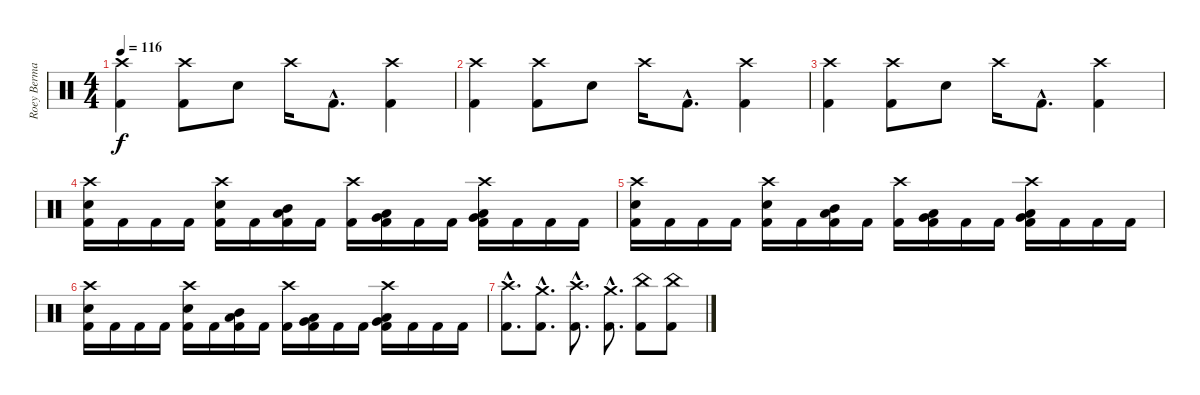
\track ("Roey Berman" "Roey Berma") {instrument percussion}
\staff {score}
\articulation defaults
\ts (4 4)
\tempo 116
\clef neutral
\ks c
("Crash high (hit)" "Kick (hit) 2").4{dy f} ("Crash high (hit)" "Kick (hit) 2").8 "Electric Snare (hit)".8 "Crash high (hit)".16 "Kick (hit) 2"{hac}.8{d} ("Crash high (hit)" "Kick (hit) 2").4 |
("Crash high (hit)" "Kick (hit) 2").4 ("Crash high (hit)" "Kick (hit) 2").8 "Electric Snare (hit)".8 "Crash high (hit)".16 "Kick (hit) 2"{hac}.8{d} ("Crash high (hit)" "Kick (hit) 2").4 |
("Crash high (hit)" "Kick (hit) 2").4 ("Crash high (hit)" "Kick (hit) 2").8 "Electric Snare (hit)".8 "Crash high (hit)".16 "Kick (hit) 2"{hac}.8{d} ("Crash high (hit)" "Kick (hit) 2").4 |
("Crash high (hit)" "Electric Snare (hit)" "Kick (hit) 2").16 "Kick (hit) 2".16 "Kick (hit) 2".16 "Kick (hit) 2".16 ("Crash high (hit)" "Electric Snare (hit)" "Kick (hit) 2").16 "Kick (hit) 2".16 ("Mid Tom (hit)" "Low Tom (hit)" "Kick (hit) 2").16 "Kick (hit) 2".16 ("Crash high (hit)" "Kick (hit) 2").16 ("Low Tom (hit)" "Very Low Tom (hit)" "Kick (hit) 2").16 "Kick (hit) 2".16 "Kick (hit) 2".16 ("Crash high (hit)" "Very Low Tom (hit)" "Low Floor Tom (hit)" "Kick (hit) 2").16 "Kick (hit) 2".16 "Kick (hit) 2".16 "Kick (hit) 2".16 |
("Crash high (hit)" "Electric Snare (hit)" "Kick (hit) 2").16 "Kick (hit) 2".16 "Kick (hit) 2".16 "Kick (hit) 2".16 ("Crash high (hit)" "Electric Snare (hit)" "Kick (hit) 2").16 "Kick (hit) 2".16 ("Mid Tom (hit)" "Low Tom (hit)" "Kick (hit) 2").16 "Kick (hit) 2".16 ("Crash high (hit)" "Kick (hit) 2").16 ("Low Tom (hit)" "Very Low Tom (hit)" "Kick (hit) 2").16 "Kick (hit) 2".16 "Kick (hit) 2".16 ("Crash high (hit)" "Very Low Tom (hit)" "Low Floor Tom (hit)" "Kick (hit) 2").16 "Kick (hit) 2".16 "Kick (hit) 2".16 "Kick (hit) 2".16 |
("Crash high (hit)" "Electric Snare (hit)" "Kick (hit) 2").16 "Kick (hit) 2".16 "Kick (hit) 2".16 "Kick (hit) 2".16 ("Crash high (hit)" "Electric Snare (hit)" "Kick (hit) 2").16 "Kick (hit) 2".16 ("Mid Tom (hit)" "Low Tom (hit)" "Kick (hit) 2").16 "Kick (hit) 2".16 ("Crash high (hit)" "Kick (hit) 2").16 ("Low Tom (hit)" "Very Low Tom (hit)" "Kick (hit) 2").16 "Kick (hit) 2".16 "Kick (hit) 2".16 ("Crash high (hit)" "Very Low Tom (hit)" "Low Floor Tom (hit)" "Kick (hit) 2").16 "Kick (hit) 2".16 "Kick (hit) 2".16 "Kick (hit) 2".16 |
("Crash high (hit)"{hac} "Kick (hit) 2"{hac}).8{d} ("Crash medium (hit)"{hac} "Kick (hit) 2"{hac}).8{d} ("Crash high (hit)"{hac} "Kick (hit) 2"{hac}).8{d} ("Crash medium (hit)"{hac} "Kick (hit) 2"{hac}).8{d} ("China (hit)" "Kick (hit) 2").8 ("China (hit)" "Kick (hit) 2").8
